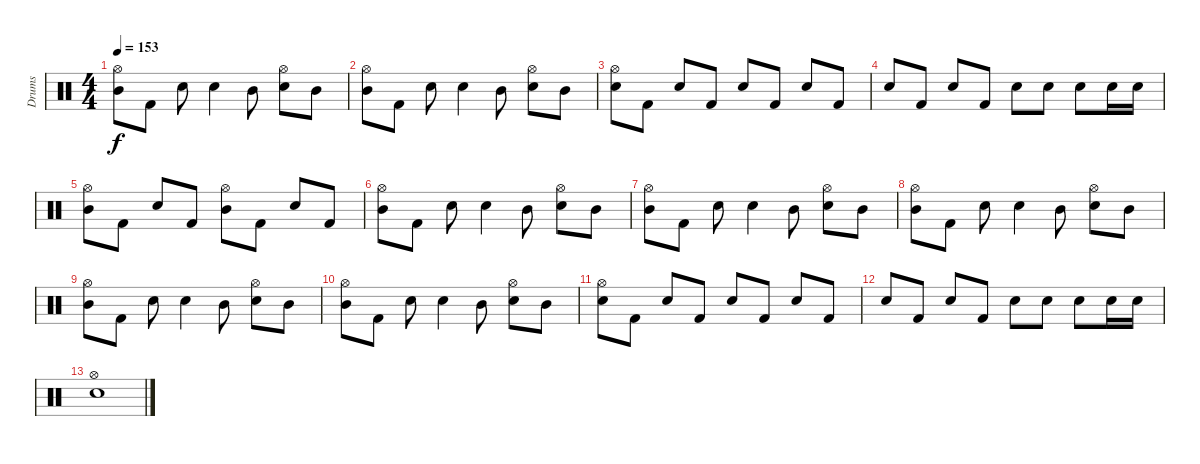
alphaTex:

\track ("Drums" "Drums") {instrument percussion}
\staff {score}
\articulation defaults
\ts (4 4)
\tempo 153
\clef neutral
\ks c
("Hi-Hat (open)" "Mid Tom (hit)").8{dy f} "Kick (hit) 2".8 "Electric Snare (hit)".8 "Electric Snare (hit)".4 "Mid Tom (hit)".8 ("Hi-Hat (open)" "Electric Snare (hit)").8 "Mid Tom (hit)".8 |
("Hi-Hat (open)" "Mid Tom (hit)").8 "Kick (hit) 2".8 "Electric Snare (hit)".8 "Electric Snare (hit)".4 "Mid Tom (hit)".8 ("Hi-Hat (open)" "Electric Snare (hit)").8 "Mid Tom (hit)".8 |
("Hi-Hat (open)" "Electric Snare (hit)").8 "Kick (hit) 2".8 "Electric Snare (hit)".8 "Kick (hit) 2".8 "Electric Snare (hit)".8 "Kick (hit) 2".8 "Electric Snare (hit)".8 "Kick (hit) 2".8 |
"Electric Snare (hit)".8 "Kick (hit) 2".8 "Electric Snare (hit)".8 "Kick (hit) 2".8 "Electric Snare (hit)".8 "Electric Snare (hit)".8 "Electric Snare (hit)".8 "Electric Snare (hit)".16 "Electric Snare (hit)".16 |
("Hi-Hat (open)" "Mid Tom (hit)").8 "Kick (hit) 2".8 "Electric Snare (hit)".8 "Kick (hit) 2".8 ("Hi-Hat (open)" "Mid Tom (hit)").8 "Kick (hit) 2".8 "Electric Snare (hit)".8 "Kick (hit) 2".8 |
("Hi-Hat (open)" "Mid Tom (hit)").8 "Kick (hit) 2".8 "Electric Snare (hit)".8 "Electric Snare (hit)".4 "Mid Tom (hit)".8 ("Hi-Hat (open)" "Electric Snare (hit)").8 "Mid Tom (hit)".8 |
("Hi-Hat (open)" "Mid Tom (hit)").8 "Kick (hit) 2".8 "Electric Snare (hit)".8 "Electric Snare (hit)".4 "Mid Tom (hit)".8 ("Hi-Hat (open)" "Electric Snare (hit)").8 "Mid Tom (hit)".8 |
("Hi-Hat (open)" "Mid Tom (hit)").8 "Kick (hit) 2".8 "Electric Snare (hit)".8 "Electric Snare (hit)".4 "Mid Tom (hit)".8 ("Hi-Hat (open)" "Electric Snare (hit)").8 "Mid Tom (hit)".8 |
("Hi-Hat (open)" "Mid Tom (hit)").8 "Kick (hit) 2".8 "Electric Snare (hit)".8 "Electric Snare (hit)".4 "Mid Tom (hit)".8 ("Hi-Hat (open)" "Electric Snare (hit)").8 "Mid Tom (hit)".8 |
("Hi-Hat (open)" "Mid Tom (hit)").8 "Kick (hit) 2".8 "Electric Snare (hit)".8 "Electric Snare (hit)".4 "Mid Tom (hit)".8 ("Hi-Hat (open)" "Electric Snare (hit)").8 "Mid Tom (hit)".8 |
("Hi-Hat (open)" "Electric Snare (hit)").8 "Kick (hit) 2".8 "Electric Snare (hit)".8 "Kick (hit) 2".8 "Electric Snare (hit)".8 "Kick (hit) 2".8 "Electric Snare (hit)".8 "Kick (hit) 2".8 |
"Electric Snare (hit)".8 "Kick (hit) 2".8 "Electric Snare (hit)".8 "Kick (hit) 2".8 "Electric Snare (hit)".8 "Electric Snare (hit)".8 "Electric Snare (hit)".8 "Electric Snare (hit)".16 "Electric Snare (hit)".16 |
("Hi-Hat (open)" "Electric Snare (hit)").1
